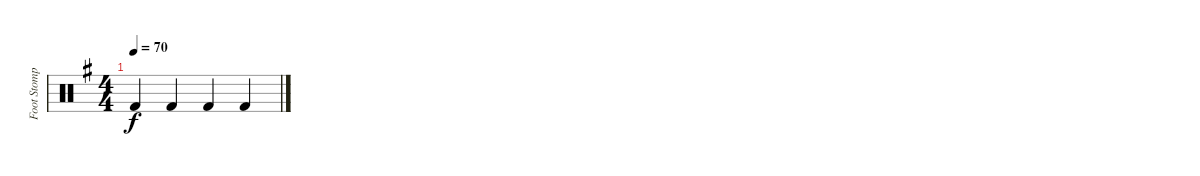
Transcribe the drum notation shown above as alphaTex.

\track ("Foot Stomp" "Foot Stomp") {instrument percussion}
\staff {score}
\articulation defaults
\ts (4 4)
\tempo 70
\clef neutral
\ks eminor "Kick (hit) 2".4{dy f} "Kick (hit) 2".4 "Kick (hit) 2".4 "Kick (hit) 2".4
